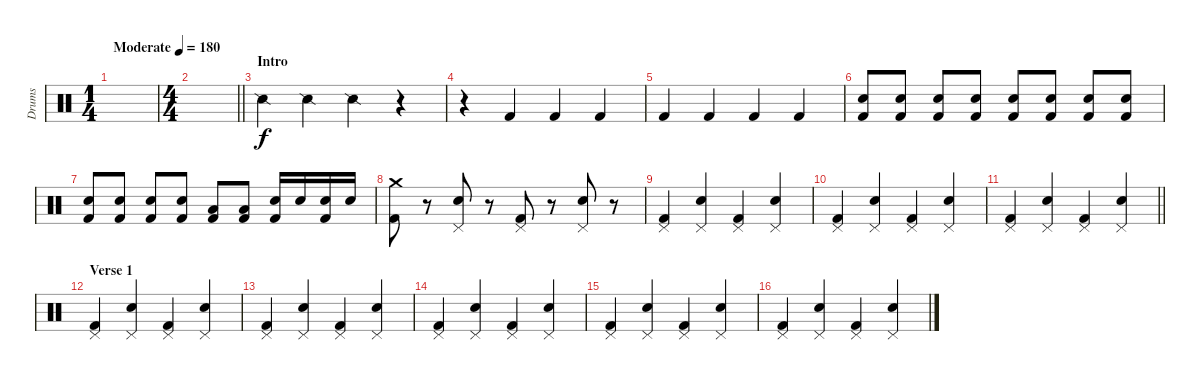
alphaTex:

\track ("Drums" "Drums") {instrument percussion}
\staff {score}
\articulation defaults
\ts (1 4)
\tempo (180 "Moderate")
\clef neutral
\ks c
|
\ts (4 4)
\barLineRight lightlight
|
\section ("" "Intro")
"Snare (side stick) 2".4 "Snare (side stick) 2".4 "Snare (side stick) 2".4 r.4 |
r.4 "Kick (hit) 2".4 "Kick (hit) 2".4 "Kick (hit) 2".4 |
"Kick (hit) 2".4 "Kick (hit) 2".4 "Kick (hit) 2".4 "Kick (hit) 2".4 |
("Snare (hit) 2" "Kick (hit) 2").8 ("Snare (hit) 2" "Kick (hit) 2").8 ("Snare (hit) 2" "Kick (hit) 2").8 ("Snare (hit) 2" "Kick (hit) 2").8 ("Snare (hit) 2" "Kick (hit) 2").8 ("Snare (hit) 2" "Kick (hit) 2").8 ("Snare (hit) 2" "Kick (hit) 2").8 ("Snare (hit) 2" "Kick (hit) 2").8 |
("Snare (hit) 2" "Kick (hit) 2").8 ("Snare (hit) 2" "Kick (hit) 2").8 ("Snare (hit) 2" "Kick (hit) 2").8 ("Snare (hit) 2" "Kick (hit) 2").8 ("Low Tom (hit)" "Kick (hit) 2").8 ("Low Tom (hit)" "Kick (hit) 2").8 ("Snare (hit) 2" "Kick (hit) 2").16 "Snare (hit) 2".16 ("Snare (hit) 2" "Kick (hit) 2").16 "Snare (hit) 2".16 |
("Crash medium (hit)" "Kick (hit) 2").8 r.8 ("Pedal Hi-Hat (hit)" "Snare (hit) 2").8 r.8 ("Pedal Hi-Hat (hit)" "Kick (hit) 2").8 r.8 ("Pedal Hi-Hat (hit)" "Snare (hit) 2").8 r.8 |
("Pedal Hi-Hat (hit)" "Kick (hit) 2").4 ("Pedal Hi-Hat (hit)" "Snare (hit) 2").4 ("Pedal Hi-Hat (hit)" "Kick (hit) 2").4 ("Pedal Hi-Hat (hit)" "Snare (hit) 2").4 |
("Pedal Hi-Hat (hit)" "Kick (hit) 2").4 ("Pedal Hi-Hat (hit)" "Snare (hit) 2").4 ("Pedal Hi-Hat (hit)" "Kick (hit) 2").4 ("Pedal Hi-Hat (hit)" "Snare (hit) 2").4 |
\barLineRight lightlight
("Pedal Hi-Hat (hit)" "Kick (hit) 2").4 ("Pedal Hi-Hat (hit)" "Snare (hit) 2").4 ("Pedal Hi-Hat (hit)" "Kick (hit) 2").4 ("Pedal Hi-Hat (hit)" "Snare (hit) 2").4 |
\section ("" "Verse 1")
("Pedal Hi-Hat (hit)" "Kick (hit) 2").4 ("Pedal Hi-Hat (hit)" "Snare (hit) 2").4 ("Pedal Hi-Hat (hit)" "Kick (hit) 2").4 ("Pedal Hi-Hat (hit)" "Snare (hit) 2").4 |
("Pedal Hi-Hat (hit)" "Kick (hit) 2").4 ("Pedal Hi-Hat (hit)" "Snare (hit) 2").4 ("Pedal Hi-Hat (hit)" "Kick (hit) 2").4 ("Pedal Hi-Hat (hit)" "Snare (hit) 2").4 |
("Pedal Hi-Hat (hit)" "Kick (hit) 2").4 ("Pedal Hi-Hat (hit)" "Snare (hit) 2").4 ("Pedal Hi-Hat (hit)" "Kick (hit) 2").4 ("Pedal Hi-Hat (hit)" "Snare (hit) 2").4 |
("Pedal Hi-Hat (hit)" "Kick (hit) 2").4 ("Pedal Hi-Hat (hit)" "Snare (hit) 2").4 ("Pedal Hi-Hat (hit)" "Kick (hit) 2").4 ("Pedal Hi-Hat (hit)" "Snare (hit) 2").4 |
("Pedal Hi-Hat (hit)" "Kick (hit) 2").4 ("Pedal Hi-Hat (hit)" "Snare (hit) 2").4 ("Pedal Hi-Hat (hit)" "Kick (hit) 2").4 ("Pedal Hi-Hat (hit)" "Snare (hit) 2").4
